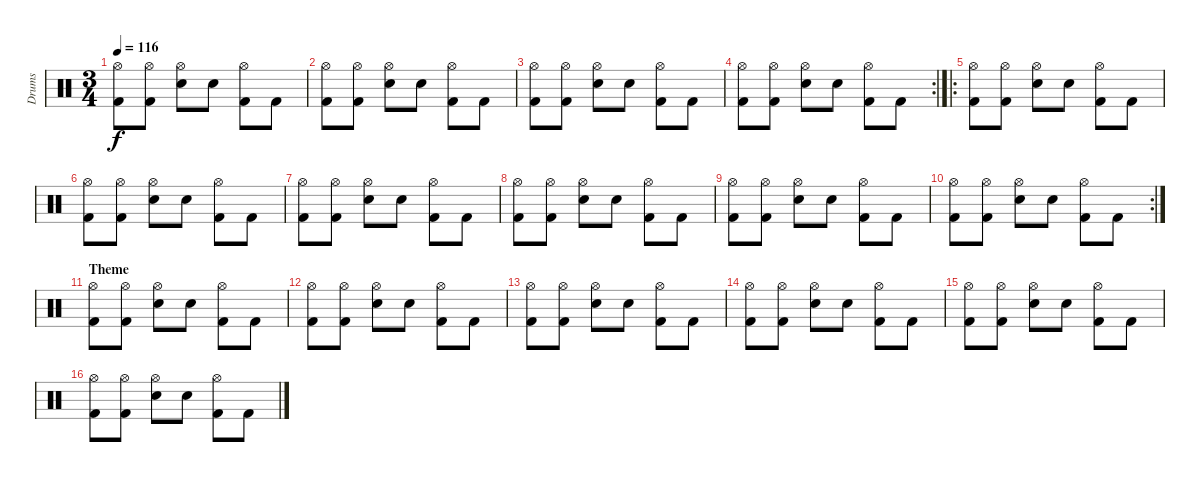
\track ("Drums" "Drums") {instrument percussion}
\staff {score}
\articulation defaults
\ts (3 4)
\tempo 116
\clef neutral
\ks c
("Hi-Hat (open)" "Kick (hit) 2").8{dy f} ("Hi-Hat (open)" "Kick (hit) 2").8 ("Hi-Hat (open)" "Snare (hit) 2").8 "Snare (hit) 2".8 ("Hi-Hat (open)" "Kick (hit) 2").8 "Kick (hit) 2".8 |
("Hi-Hat (open)" "Kick (hit) 2").8 ("Hi-Hat (open)" "Kick (hit) 2").8 ("Hi-Hat (open)" "Snare (hit) 2").8 "Snare (hit) 2".8 ("Hi-Hat (open)" "Kick (hit) 2").8 "Kick (hit) 2".8 |
("Hi-Hat (open)" "Kick (hit) 2").8 ("Hi-Hat (open)" "Kick (hit) 2").8 ("Hi-Hat (open)" "Snare (hit) 2").8 "Snare (hit) 2".8 ("Hi-Hat (open)" "Kick (hit) 2").8 "Kick (hit) 2".8 |
\rc 2
("Hi-Hat (open)" "Kick (hit) 2").8 ("Hi-Hat (open)" "Kick (hit) 2").8 ("Hi-Hat (open)" "Snare (hit) 2").8 "Snare (hit) 2".8 ("Hi-Hat (open)" "Kick (hit) 2").8 "Kick (hit) 2".8 |
\ro
("Hi-Hat (open)" "Kick (hit) 2").8 ("Hi-Hat (open)" "Kick (hit) 2").8 ("Hi-Hat (open)" "Snare (hit) 2").8 "Snare (hit) 2".8 ("Hi-Hat (open)" "Kick (hit) 2").8 "Kick (hit) 2".8 |
("Hi-Hat (open)" "Kick (hit) 2").8 ("Hi-Hat (open)" "Kick (hit) 2").8 ("Hi-Hat (open)" "Snare (hit) 2").8 "Snare (hit) 2".8 ("Hi-Hat (open)" "Kick (hit) 2").8 "Kick (hit) 2".8 |
("Hi-Hat (open)" "Kick (hit) 2").8 ("Hi-Hat (open)" "Kick (hit) 2").8 ("Hi-Hat (open)" "Snare (hit) 2").8 "Snare (hit) 2".8 ("Hi-Hat (open)" "Kick (hit) 2").8 "Kick (hit) 2".8 |
("Hi-Hat (open)" "Kick (hit) 2").8 ("Hi-Hat (open)" "Kick (hit) 2").8 ("Hi-Hat (open)" "Snare (hit) 2").8 "Snare (hit) 2".8 ("Hi-Hat (open)" "Kick (hit) 2").8 "Kick (hit) 2".8 |
("Hi-Hat (open)" "Kick (hit) 2").8 ("Hi-Hat (open)" "Kick (hit) 2").8 ("Hi-Hat (open)" "Snare (hit) 2").8 "Snare (hit) 2".8 ("Hi-Hat (open)" "Kick (hit) 2").8 "Kick (hit) 2".8 |
\rc 2
("Hi-Hat (open)" "Kick (hit) 2").8 ("Hi-Hat (open)" "Kick (hit) 2").8 ("Hi-Hat (open)" "Snare (hit) 2").8 "Snare (hit) 2".8 ("Hi-Hat (open)" "Kick (hit) 2").8 "Kick (hit) 2".8 |
\section ("" "Theme")
("Hi-Hat (open)" "Kick (hit) 2").8 ("Hi-Hat (open)" "Kick (hit) 2").8 ("Hi-Hat (open)" "Snare (hit) 2").8 "Snare (hit) 2".8 ("Hi-Hat (open)" "Kick (hit) 2").8 "Kick (hit) 2".8 |
("Hi-Hat (open)" "Kick (hit) 2").8 ("Hi-Hat (open)" "Kick (hit) 2").8 ("Hi-Hat (open)" "Snare (hit) 2").8 "Snare (hit) 2".8 ("Hi-Hat (open)" "Kick (hit) 2").8 "Kick (hit) 2".8 |
("Hi-Hat (open)" "Kick (hit) 2").8 ("Hi-Hat (open)" "Kick (hit) 2").8 ("Hi-Hat (open)" "Snare (hit) 2").8 "Snare (hit) 2".8 ("Hi-Hat (open)" "Kick (hit) 2").8 "Kick (hit) 2".8 |
("Hi-Hat (open)" "Kick (hit) 2").8 ("Hi-Hat (open)" "Kick (hit) 2").8 ("Hi-Hat (open)" "Snare (hit) 2").8 "Snare (hit) 2".8 ("Hi-Hat (open)" "Kick (hit) 2").8 "Kick (hit) 2".8 |
("Hi-Hat (open)" "Kick (hit) 2").8 ("Hi-Hat (open)" "Kick (hit) 2").8 ("Hi-Hat (open)" "Snare (hit) 2").8 "Snare (hit) 2".8 ("Hi-Hat (open)" "Kick (hit) 2").8 "Kick (hit) 2".8 |
("Hi-Hat (open)" "Kick (hit) 2").8 ("Hi-Hat (open)" "Kick (hit) 2").8 ("Hi-Hat (open)" "Snare (hit) 2").8 "Snare (hit) 2".8 ("Hi-Hat (open)" "Kick (hit) 2").8 "Kick (hit) 2".8
